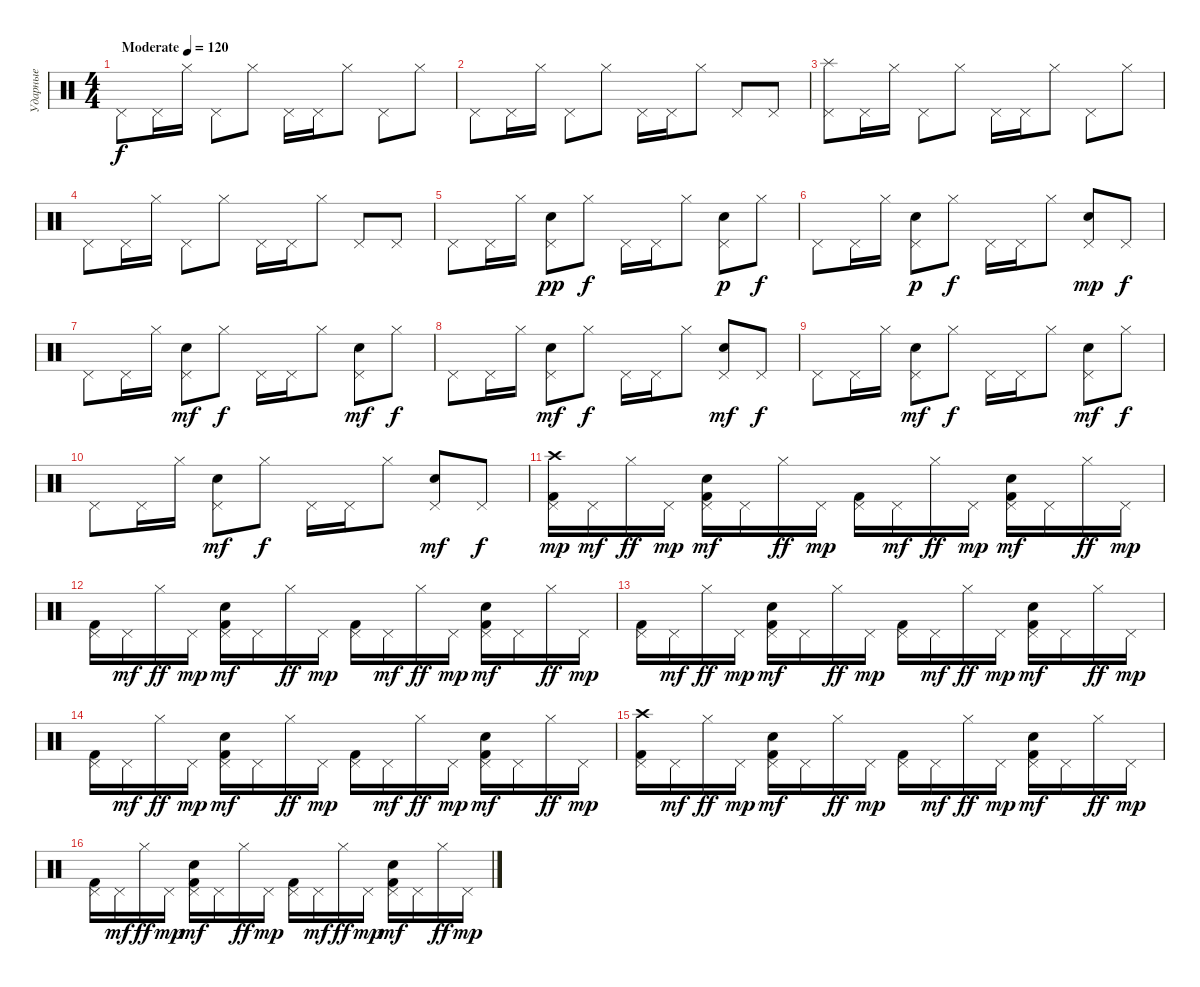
\track ("Ударные" "Ударные") {instrument percussion}
\staff {score}
\articulation defaults
\ts (4 4)
\tempo (120 "Moderate")
\clef neutral
\ks c "Pedal Hi-Hat (hit)".8{dy f} "Pedal Hi-Hat (hit)".16 "Hi-Hat (closed)".16 "Pedal Hi-Hat (hit)".8 "Hi-Hat (closed)".8 "Pedal Hi-Hat (hit)".16 "Pedal Hi-Hat (hit)".16 "Hi-Hat (closed)".8 "Pedal Hi-Hat (hit)".8 "Hi-Hat (closed)".8
|
"Pedal Hi-Hat (hit)".8 "Pedal Hi-Hat (hit)".16 "Hi-Hat (closed)".16 "Pedal Hi-Hat (hit)".8 "Hi-Hat (closed)".8 "Pedal Hi-Hat (hit)".16 "Pedal Hi-Hat (hit)".16 "Hi-Hat (closed)".8 "Pedal Hi-Hat (hit)".8 "Pedal Hi-Hat (hit)".8 |
("Splash (hit)" "Pedal Hi-Hat (hit)").8 "Pedal Hi-Hat (hit)".16 "Hi-Hat (closed)".16 "Pedal Hi-Hat (hit)".8 "Hi-Hat (closed)".8 "Pedal Hi-Hat (hit)".16 "Pedal Hi-Hat (hit)".16 "Hi-Hat (closed)".8 "Pedal Hi-Hat (hit)".8 "Hi-Hat (closed)".8 |
"Pedal Hi-Hat (hit)".8 "Pedal Hi-Hat (hit)".16 "Hi-Hat (closed)".16 "Pedal Hi-Hat (hit)".8 "Hi-Hat (closed)".8 "Pedal Hi-Hat (hit)".16 "Pedal Hi-Hat (hit)".16 "Hi-Hat (closed)".8 "Pedal Hi-Hat (hit)".8 "Pedal Hi-Hat (hit)".8 |
"Pedal Hi-Hat (hit)".8 "Pedal Hi-Hat (hit)".16 "Hi-Hat (closed)".16 ("Pedal Hi-Hat (hit)" "Electric Snare (hit)").8{dy pp} "Hi-Hat (closed)".8{dy f} "Pedal Hi-Hat (hit)".16 "Pedal Hi-Hat (hit)".16 "Hi-Hat (closed)".8 ("Pedal Hi-Hat (hit)" "Electric Snare (hit)").8{dy p} "Hi-Hat (closed)".8{dy f} |
"Pedal Hi-Hat (hit)".8 "Pedal Hi-Hat (hit)".16 "Hi-Hat (closed)".16 ("Pedal Hi-Hat (hit)" "Electric Snare (hit)").8{dy p} "Hi-Hat (closed)".8{dy f} "Pedal Hi-Hat (hit)".16 "Pedal Hi-Hat (hit)".16 "Hi-Hat (closed)".8 ("Pedal Hi-Hat (hit)" "Electric Snare (hit)").8{dy mp} "Pedal Hi-Hat (hit)".8{dy f} |
"Pedal Hi-Hat (hit)".8 "Pedal Hi-Hat (hit)".16 "Hi-Hat (closed)".16 ("Pedal Hi-Hat (hit)" "Electric Snare (hit)").8{dy mf} "Hi-Hat (closed)".8{dy f} "Pedal Hi-Hat (hit)".16 "Pedal Hi-Hat (hit)".16 "Hi-Hat (closed)".8 ("Pedal Hi-Hat (hit)" "Electric Snare (hit)").8{dy mf} "Hi-Hat (closed)".8{dy f} |
"Pedal Hi-Hat (hit)".8 "Pedal Hi-Hat (hit)".16 "Hi-Hat (closed)".16 ("Pedal Hi-Hat (hit)" "Electric Snare (hit)").8{dy mf} "Hi-Hat (closed)".8{dy f} "Pedal Hi-Hat (hit)".16 "Pedal Hi-Hat (hit)".16 "Hi-Hat (closed)".8 ("Pedal Hi-Hat (hit)" "Electric Snare (hit)").8{dy mf} "Pedal Hi-Hat (hit)".8{dy f} |
"Pedal Hi-Hat (hit)".8 "Pedal Hi-Hat (hit)".16 "Hi-Hat (closed)".16 ("Pedal Hi-Hat (hit)" "Electric Snare (hit)").8{dy mf} "Hi-Hat (closed)".8{dy f} "Pedal Hi-Hat (hit)".16 "Pedal Hi-Hat (hit)".16 "Hi-Hat (closed)".8 ("Pedal Hi-Hat (hit)" "Electric Snare (hit)").8{dy mf} "Hi-Hat (closed)".8{dy f} |
"Pedal Hi-Hat (hit)".8 "Pedal Hi-Hat (hit)".16 "Hi-Hat (closed)".16 ("Pedal Hi-Hat (hit)" "Electric Snare (hit)").8{dy mf} "Hi-Hat (closed)".8{dy f} "Pedal Hi-Hat (hit)".16 "Pedal Hi-Hat (hit)".16 "Hi-Hat (closed)".8 ("Pedal Hi-Hat (hit)" "Electric Snare (hit)").8{dy mf} "Pedal Hi-Hat (hit)".8{dy f} |
("Crash high (hit)" "Pedal Hi-Hat (hit)" "Kick (hit) 2").16{dy mp} "Pedal Hi-Hat (hit)".16{dy mf} "Hi-Hat (closed)".16{dy ff} "Pedal Hi-Hat (hit)".16{dy mp} ("Pedal Hi-Hat (hit)" "Electric Snare (hit)" "Kick (hit) 2").16{dy mf} "Pedal Hi-Hat (hit)".16 "Hi-Hat (closed)".16{dy ff} "Pedal Hi-Hat (hit)".16{dy mp} ("Pedal Hi-Hat (hit)" "Kick (hit) 2").16 "Pedal Hi-Hat (hit)".16{dy mf} "Hi-Hat (closed)".16{dy ff} "Pedal Hi-Hat (hit)".16{dy mp} ("Pedal Hi-Hat (hit)" "Electric Snare (hit)" "Kick (hit) 2").16{dy mf} "Pedal Hi-Hat (hit)".16 "Hi-Hat (closed)".16{dy ff} "Pedal Hi-Hat (hit)".16{dy mp} |
("Pedal Hi-Hat (hit)" "Kick (hit) 2").16 "Pedal Hi-Hat (hit)".16{dy mf} "Hi-Hat (closed)".16{dy ff} "Pedal Hi-Hat (hit)".16{dy mp} ("Pedal Hi-Hat (hit)" "Electric Snare (hit)" "Kick (hit) 2").16{dy mf} "Pedal Hi-Hat (hit)".16 "Hi-Hat (closed)".16{dy ff} "Pedal Hi-Hat (hit)".16{dy mp} ("Pedal Hi-Hat (hit)" "Kick (hit) 2").16 "Pedal Hi-Hat (hit)".16{dy mf} "Hi-Hat (closed)".16{dy ff} "Pedal Hi-Hat (hit)".16{dy mp} ("Pedal Hi-Hat (hit)" "Electric Snare (hit)" "Kick (hit) 2").16{dy mf} "Pedal Hi-Hat (hit)".16 "Hi-Hat (closed)".16{dy ff} "Pedal Hi-Hat (hit)".16{dy mp} |
("Pedal Hi-Hat (hit)" "Kick (hit) 2").16 "Pedal Hi-Hat (hit)".16{dy mf} "Hi-Hat (closed)".16{dy ff} "Pedal Hi-Hat (hit)".16{dy mp} ("Pedal Hi-Hat (hit)" "Electric Snare (hit)" "Kick (hit) 2").16{dy mf} "Pedal Hi-Hat (hit)".16 "Hi-Hat (closed)".16{dy ff} "Pedal Hi-Hat (hit)".16{dy mp} ("Pedal Hi-Hat (hit)" "Kick (hit) 2").16 "Pedal Hi-Hat (hit)".16{dy mf} "Hi-Hat (closed)".16{dy ff} "Pedal Hi-Hat (hit)".16{dy mp} ("Pedal Hi-Hat (hit)" "Electric Snare (hit)" "Kick (hit) 2").16{dy mf} "Pedal Hi-Hat (hit)".16 "Hi-Hat (closed)".16{dy ff} "Pedal Hi-Hat (hit)".16{dy mp} |
("Pedal Hi-Hat (hit)" "Kick (hit) 2").16 "Pedal Hi-Hat (hit)".16{dy mf} "Hi-Hat (closed)".16{dy ff} "Pedal Hi-Hat (hit)".16{dy mp} ("Pedal Hi-Hat (hit)" "Electric Snare (hit)" "Kick (hit) 2").16{dy mf} "Pedal Hi-Hat (hit)".16 "Hi-Hat (closed)".16{dy ff} "Pedal Hi-Hat (hit)".16{dy mp} ("Pedal Hi-Hat (hit)" "Kick (hit) 2").16 "Pedal Hi-Hat (hit)".16{dy mf} "Hi-Hat (closed)".16{dy ff} "Pedal Hi-Hat (hit)".16{dy mp} ("Pedal Hi-Hat (hit)" "Electric Snare (hit)" "Kick (hit) 2").16{dy mf} "Pedal Hi-Hat (hit)".16 "Hi-Hat (closed)".16{dy ff} "Pedal Hi-Hat (hit)".16{dy mp} |
("Crash high (hit)" "Pedal Hi-Hat (hit)" "Kick (hit) 2").16 "Pedal Hi-Hat (hit)".16{dy mf} "Hi-Hat (closed)".16{dy ff} "Pedal Hi-Hat (hit)".16{dy mp} ("Pedal Hi-Hat (hit)" "Electric Snare (hit)" "Kick (hit) 2").16{dy mf} "Pedal Hi-Hat (hit)".16 "Hi-Hat (closed)".16{dy ff} "Pedal Hi-Hat (hit)".16{dy mp} ("Pedal Hi-Hat (hit)" "Kick (hit) 2").16 "Pedal Hi-Hat (hit)".16{dy mf} "Hi-Hat (closed)".16{dy ff} "Pedal Hi-Hat (hit)".16{dy mp} ("Pedal Hi-Hat (hit)" "Electric Snare (hit)" "Kick (hit) 2").16{dy mf} "Pedal Hi-Hat (hit)".16 "Hi-Hat (closed)".16{dy ff} "Pedal Hi-Hat (hit)".16{dy mp} |
("Pedal Hi-Hat (hit)" "Kick (hit) 2").16 "Pedal Hi-Hat (hit)".16{dy mf} "Hi-Hat (closed)".16{dy ff} "Pedal Hi-Hat (hit)".16{dy mp} ("Pedal Hi-Hat (hit)" "Electric Snare (hit)" "Kick (hit) 2").16{dy mf} "Pedal Hi-Hat (hit)".16 "Hi-Hat (closed)".16{dy ff} "Pedal Hi-Hat (hit)".16{dy mp} ("Pedal Hi-Hat (hit)" "Kick (hit) 2").16 "Pedal Hi-Hat (hit)".16{dy mf} "Hi-Hat (closed)".16{dy ff} "Pedal Hi-Hat (hit)".16{dy mp} ("Pedal Hi-Hat (hit)" "Electric Snare (hit)" "Kick (hit) 2").16{dy mf} "Pedal Hi-Hat (hit)".16 "Hi-Hat (closed)".16{dy ff} "Pedal Hi-Hat (hit)".16{dy mp}
